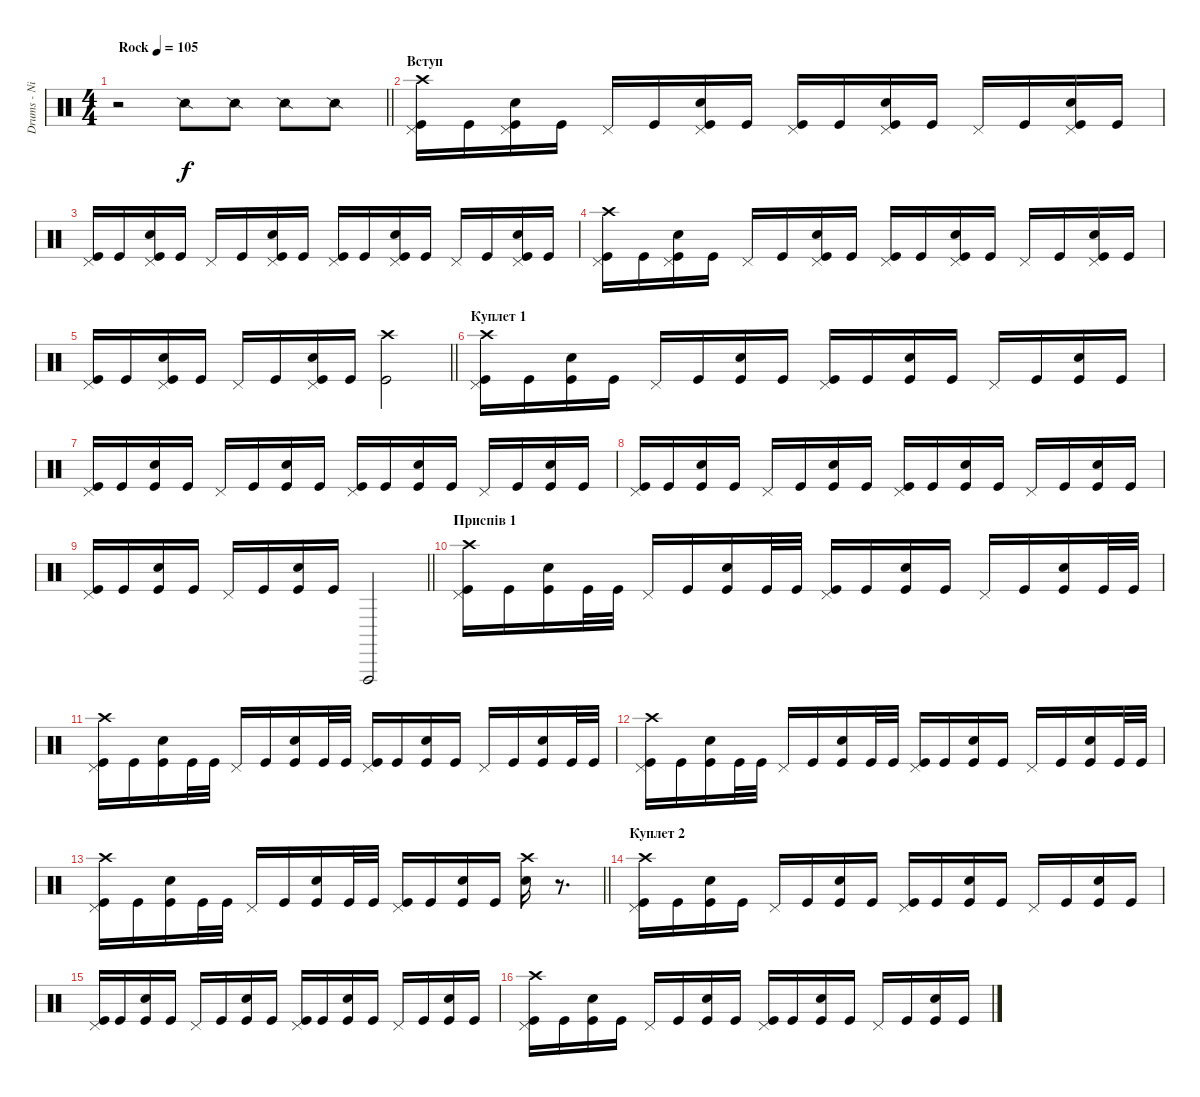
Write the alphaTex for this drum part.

\track ("Drums - NikiTon" "Drums - Ni") {instrument percussion}
\staff {score}
\articulation defaults
\ts (4 4)
\tempo (105 "Rock")
\clef neutral
\barLineRight lightlight
\ks c
r.2{dy f} "Snare (side stick) 2".8 "Snare (side stick) 2".8 "Snare (side stick) 2".8 "Snare (side stick) 2".8 |
\section ("" "Вступ")
("Kick (hit)" "Pedal Hi-Hat (hit)" "Crash high (hit)").16 "Kick (hit)".16 ("Kick (hit)" "Electric Snare (hit)" "Pedal Hi-Hat (hit)").16 "Kick (hit)".16 "Pedal Hi-Hat (hit)".16 "Kick (hit)".16 ("Kick (hit)" "Electric Snare (hit)" "Pedal Hi-Hat (hit)").16 "Kick (hit)".16 ("Kick (hit)" "Pedal Hi-Hat (hit)").16 "Kick (hit)".16 ("Kick (hit)" "Electric Snare (hit)" "Pedal Hi-Hat (hit)").16 "Kick (hit)".16 "Pedal Hi-Hat (hit)".16 "Kick (hit)".16 ("Kick (hit)" "Electric Snare (hit)" "Pedal Hi-Hat (hit)").16 "Kick (hit)".16 |
("Kick (hit)" "Pedal Hi-Hat (hit)").16 "Kick (hit)".16 ("Kick (hit)" "Electric Snare (hit)" "Pedal Hi-Hat (hit)").16 "Kick (hit)".16 "Pedal Hi-Hat (hit)".16 "Kick (hit)".16 ("Kick (hit)" "Electric Snare (hit)" "Pedal Hi-Hat (hit)").16 "Kick (hit)".16 ("Kick (hit)" "Pedal Hi-Hat (hit)").16 "Kick (hit)".16 ("Kick (hit)" "Electric Snare (hit)" "Pedal Hi-Hat (hit)").16 "Kick (hit)".16 "Pedal Hi-Hat (hit)".16 "Kick (hit)".16 ("Kick (hit)" "Electric Snare (hit)" "Pedal Hi-Hat (hit)").16 "Kick (hit)".16 |
("Kick (hit)" "Pedal Hi-Hat (hit)" "Crash high (hit)").16 "Kick (hit)".16 ("Kick (hit)" "Electric Snare (hit)" "Pedal Hi-Hat (hit)").16 "Kick (hit)".16 "Pedal Hi-Hat (hit)".16 "Kick (hit)".16 ("Kick (hit)" "Electric Snare (hit)" "Pedal Hi-Hat (hit)").16 "Kick (hit)".16 ("Kick (hit)" "Pedal Hi-Hat (hit)").16 "Kick (hit)".16 ("Kick (hit)" "Electric Snare (hit)" "Pedal Hi-Hat (hit)").16 "Kick (hit)".16 "Pedal Hi-Hat (hit)".16 "Kick (hit)".16 ("Kick (hit)" "Electric Snare (hit)" "Pedal Hi-Hat (hit)").16 "Kick (hit)".16 |
\barLineRight lightlight
("Kick (hit)" "Pedal Hi-Hat (hit)").16 "Kick (hit)".16 ("Kick (hit)" "Electric Snare (hit)" "Pedal Hi-Hat (hit)").16 "Kick (hit)".16 "Pedal Hi-Hat (hit)".16 "Kick (hit)".16 ("Kick (hit)" "Electric Snare (hit)" "Pedal Hi-Hat (hit)").16 "Kick (hit)".16 ("Crash high (hit)" "Kick (hit)").2 |
\section ("" "Куплет 1")
("Kick (hit)" "Pedal Hi-Hat (hit)" "Crash high (hit)").16 "Kick (hit)".16 ("Kick (hit)" "Electric Snare (hit)").16 "Kick (hit)".16 "Pedal Hi-Hat (hit)".16 "Kick (hit)".16 ("Kick (hit)" "Electric Snare (hit)").16 "Kick (hit)".16 ("Kick (hit)" "Pedal Hi-Hat (hit)").16 "Kick (hit)".16 ("Kick (hit)" "Electric Snare (hit)").16 "Kick (hit)".16 "Pedal Hi-Hat (hit)".16 "Kick (hit)".16 ("Kick (hit)" "Electric Snare (hit)").16 "Kick (hit)".16 |
("Kick (hit)" "Pedal Hi-Hat (hit)").16 "Kick (hit)".16 ("Kick (hit)" "Electric Snare (hit)").16 "Kick (hit)".16 "Pedal Hi-Hat (hit)".16 "Kick (hit)".16 ("Kick (hit)" "Electric Snare (hit)").16 "Kick (hit)".16 ("Kick (hit)" "Pedal Hi-Hat (hit)").16 "Kick (hit)".16 ("Kick (hit)" "Electric Snare (hit)").16 "Kick (hit)".16 "Pedal Hi-Hat (hit)".16 "Kick (hit)".16 ("Kick (hit)" "Electric Snare (hit)").16 "Kick (hit)".16 |
("Kick (hit)" "Pedal Hi-Hat (hit)").16 "Kick (hit)".16 ("Kick (hit)" "Electric Snare (hit)").16 "Kick (hit)".16 "Pedal Hi-Hat (hit)".16 "Kick (hit)".16 ("Kick (hit)" "Electric Snare (hit)").16 "Kick (hit)".16 ("Kick (hit)" "Pedal Hi-Hat (hit)").16 "Kick (hit)".16 ("Kick (hit)" "Electric Snare (hit)").16 "Kick (hit)".16 "Pedal Hi-Hat (hit)".16 "Kick (hit)".16 ("Kick (hit)" "Electric Snare (hit)").16 "Kick (hit)".16 |
\barLineRight lightlight
("Kick (hit)" "Pedal Hi-Hat (hit)").16 "Kick (hit)".16 ("Kick (hit)" "Electric Snare (hit)").16 "Kick (hit)".16 "Pedal Hi-Hat (hit)".16 "Kick (hit)".16 ("Kick (hit)" "Electric Snare (hit)").16 "Kick (hit)".16 "Vibraslap (hit)".2 |
\section ("" "Приспів 1")
("Kick (hit)" "Pedal Hi-Hat (hit)" "Crash high (hit)").16 "Kick (hit)".16 ("Kick (hit)" "Electric Snare (hit)").16 "Kick (hit)".32 "Kick (hit)".32 "Pedal Hi-Hat (hit)".16 "Kick (hit)".16 ("Kick (hit)" "Electric Snare (hit)").16 "Kick (hit)".32 "Kick (hit)".32 ("Kick (hit)" "Pedal Hi-Hat (hit)").16 "Kick (hit)".16 ("Kick (hit)" "Electric Snare (hit)").16 "Kick (hit)".16 "Pedal Hi-Hat (hit)".16 "Kick (hit)".16 ("Kick (hit)" "Electric Snare (hit)").16 "Kick (hit)".32 "Kick (hit)".32 |
("Kick (hit)" "Pedal Hi-Hat (hit)" "Crash high (hit)").16 "Kick (hit)".16 ("Kick (hit)" "Electric Snare (hit)").16 "Kick (hit)".32 "Kick (hit)".32 "Pedal Hi-Hat (hit)".16 "Kick (hit)".16 ("Kick (hit)" "Electric Snare (hit)").16 "Kick (hit)".32 "Kick (hit)".32 ("Kick (hit)" "Pedal Hi-Hat (hit)").16 "Kick (hit)".16 ("Kick (hit)" "Electric Snare (hit)").16 "Kick (hit)".16 "Pedal Hi-Hat (hit)".16 "Kick (hit)".16 ("Kick (hit)" "Electric Snare (hit)").16 "Kick (hit)".32 "Kick (hit)".32 |
("Kick (hit)" "Pedal Hi-Hat (hit)" "Crash high (hit)").16 "Kick (hit)".16 ("Kick (hit)" "Electric Snare (hit)").16 "Kick (hit)".32 "Kick (hit)".32 "Pedal Hi-Hat (hit)".16 "Kick (hit)".16 ("Kick (hit)" "Electric Snare (hit)").16 "Kick (hit)".32 "Kick (hit)".32 ("Kick (hit)" "Pedal Hi-Hat (hit)").16 "Kick (hit)".16 ("Kick (hit)" "Electric Snare (hit)").16 "Kick (hit)".16 "Pedal Hi-Hat (hit)".16 "Kick (hit)".16 ("Kick (hit)" "Electric Snare (hit)").16 "Kick (hit)".32 "Kick (hit)".32 |
\barLineRight lightlight
("Kick (hit)" "Pedal Hi-Hat (hit)" "Crash high (hit)").16 "Kick (hit)".16 ("Kick (hit)" "Electric Snare (hit)").16 "Kick (hit)".32 "Kick (hit)".32 "Pedal Hi-Hat (hit)".16 "Kick (hit)".16 ("Kick (hit)" "Electric Snare (hit)").16 "Kick (hit)".32 "Kick (hit)".32 ("Kick (hit)" "Pedal Hi-Hat (hit)").16 "Kick (hit)".16 ("Kick (hit)" "Electric Snare (hit)").16 "Kick (hit)".16 ("Crash high (hit)" "Snare (hit) 2").16 r.8{d} |
\section ("" "Куплет 2")
("Kick (hit)" "Pedal Hi-Hat (hit)" "Crash high (hit)").16 "Kick (hit)".16 ("Kick (hit)" "Electric Snare (hit)").16 "Kick (hit)".16 "Pedal Hi-Hat (hit)".16 "Kick (hit)".16 ("Kick (hit)" "Electric Snare (hit)").16 "Kick (hit)".16 ("Kick (hit)" "Pedal Hi-Hat (hit)").16 "Kick (hit)".16 ("Kick (hit)" "Electric Snare (hit)").16 "Kick (hit)".16 "Pedal Hi-Hat (hit)".16 "Kick (hit)".16 ("Kick (hit)" "Electric Snare (hit)").16 "Kick (hit)".16 |
("Kick (hit)" "Pedal Hi-Hat (hit)").16 "Kick (hit)".16 ("Kick (hit)" "Electric Snare (hit)").16 "Kick (hit)".16 "Pedal Hi-Hat (hit)".16 "Kick (hit)".16 ("Kick (hit)" "Electric Snare (hit)").16 "Kick (hit)".16 ("Kick (hit)" "Pedal Hi-Hat (hit)").16 "Kick (hit)".16 ("Kick (hit)" "Electric Snare (hit)").16 "Kick (hit)".16 "Pedal Hi-Hat (hit)".16 "Kick (hit)".16 ("Kick (hit)" "Electric Snare (hit)").16 "Kick (hit)".16 |
("Kick (hit)" "Pedal Hi-Hat (hit)" "Crash high (hit)").16 "Kick (hit)".16 ("Kick (hit)" "Electric Snare (hit)").16 "Kick (hit)".16 "Pedal Hi-Hat (hit)".16 "Kick (hit)".16 ("Kick (hit)" "Electric Snare (hit)").16 "Kick (hit)".16 ("Kick (hit)" "Pedal Hi-Hat (hit)").16 "Kick (hit)".16 ("Kick (hit)" "Electric Snare (hit)").16 "Kick (hit)".16 "Pedal Hi-Hat (hit)".16 "Kick (hit)".16 ("Kick (hit)" "Electric Snare (hit)").16 "Kick (hit)".16
